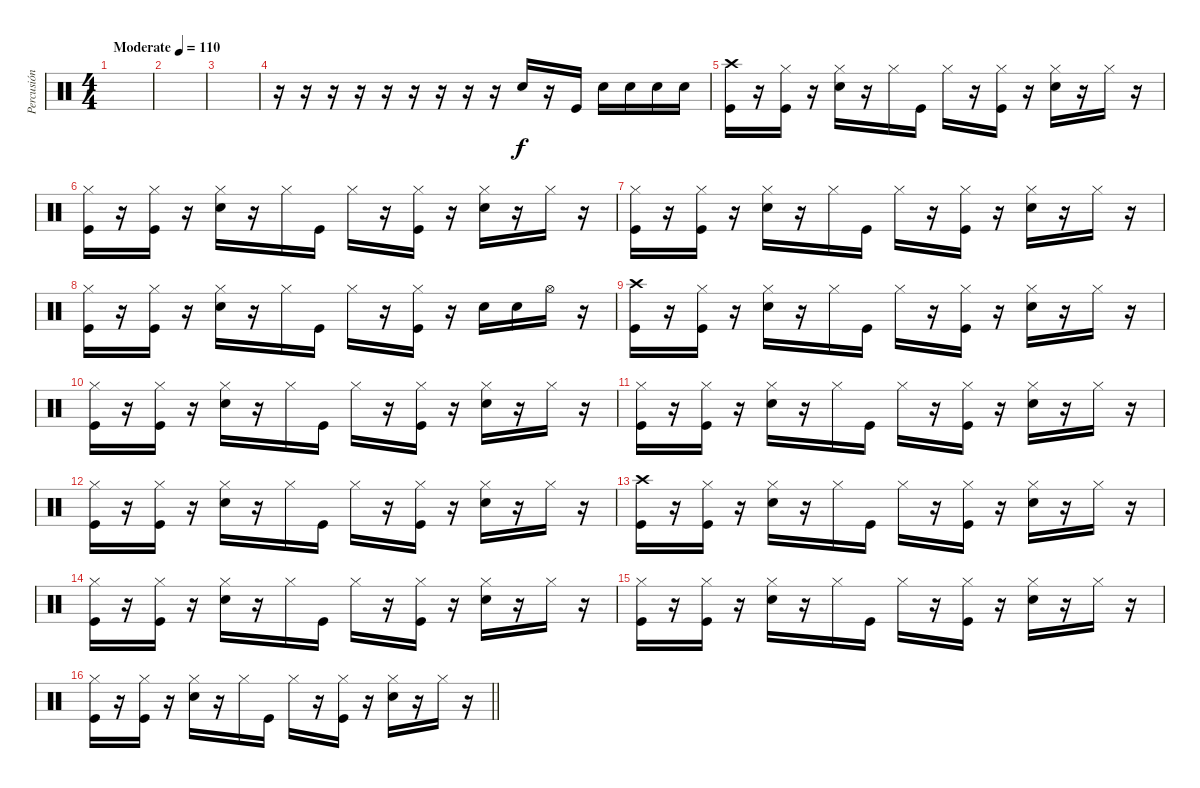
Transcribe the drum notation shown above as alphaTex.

\track ("Percusión" "Percusión") {instrument percussion}
\staff {score}
\articulation defaults
\ts (4 4)
\tempo (110 "Moderate")
\clef neutral
\ks c
|
|
|
r.16 r.16 r.16 r.16 r.16 r.16 r.16 r.16 r.16 "Electric Snare (hit)".16 r.16 "Kick (hit)".16 "Electric Snare (hit)".16 "Electric Snare (hit)".16 "Electric Snare (hit)".16 "Electric Snare (hit)".16 |
("Crash high (hit)" "Kick (hit)").16 r.16 ("Hi-Hat (closed)" "Kick (hit)").16 r.16 ("Hi-Hat (closed)" "Electric Snare (hit)").16 r.16 "Hi-Hat (closed)".16 "Kick (hit)".16 "Hi-Hat (closed)".16 r.16 ("Hi-Hat (closed)" "Kick (hit)").16 r.16 ("Hi-Hat (closed)" "Electric Snare (hit)").16 r.16 "Hi-Hat (closed)".16 r.16 |
("Hi-Hat (closed)" "Kick (hit)").16 r.16 ("Hi-Hat (closed)" "Kick (hit)").16 r.16 ("Hi-Hat (closed)" "Electric Snare (hit)").16 r.16 "Hi-Hat (closed)".16 "Kick (hit)".16 "Hi-Hat (closed)".16 r.16 ("Hi-Hat (closed)" "Kick (hit)").16 r.16 ("Hi-Hat (closed)" "Electric Snare (hit)").16 r.16 "Hi-Hat (closed)".16 r.16 |
("Hi-Hat (closed)" "Kick (hit)").16 r.16 ("Hi-Hat (closed)" "Kick (hit)").16 r.16 ("Hi-Hat (closed)" "Electric Snare (hit)").16 r.16 "Hi-Hat (closed)".16 "Kick (hit)".16 "Hi-Hat (closed)".16 r.16 ("Hi-Hat (closed)" "Kick (hit)").16 r.16 ("Hi-Hat (closed)" "Electric Snare (hit)").16 r.16 "Hi-Hat (closed)".16 r.16 |
("Hi-Hat (closed)" "Kick (hit)").16 r.16 ("Hi-Hat (closed)" "Kick (hit)").16 r.16 ("Hi-Hat (closed)" "Electric Snare (hit)").16 r.16 "Hi-Hat (closed)".16 "Kick (hit)".16 "Hi-Hat (closed)".16 r.16 ("Hi-Hat (closed)" "Kick (hit)").16 r.16 "Electric Snare (hit)".16 "Electric Snare (hit)".16 "Hi-Hat (open)".16 r.16 |
("Crash high (hit)" "Kick (hit)").16 r.16 ("Hi-Hat (closed)" "Kick (hit)").16 r.16 ("Hi-Hat (closed)" "Electric Snare (hit)").16 r.16 "Hi-Hat (closed)".16 "Kick (hit)".16 "Hi-Hat (closed)".16 r.16 ("Hi-Hat (closed)" "Kick (hit)").16 r.16 ("Hi-Hat (closed)" "Electric Snare (hit)").16 r.16 "Hi-Hat (closed)".16 r.16 |
("Hi-Hat (closed)" "Kick (hit)").16 r.16 ("Hi-Hat (closed)" "Kick (hit)").16 r.16 ("Hi-Hat (closed)" "Electric Snare (hit)").16 r.16 "Hi-Hat (closed)".16 "Kick (hit)".16 "Hi-Hat (closed)".16 r.16 ("Hi-Hat (closed)" "Kick (hit)").16 r.16 ("Hi-Hat (closed)" "Electric Snare (hit)").16 r.16 "Hi-Hat (closed)".16 r.16 |
("Hi-Hat (closed)" "Kick (hit)").16 r.16 ("Hi-Hat (closed)" "Kick (hit)").16 r.16 ("Hi-Hat (closed)" "Electric Snare (hit)").16 r.16 "Hi-Hat (closed)".16 "Kick (hit)".16 "Hi-Hat (closed)".16 r.16 ("Hi-Hat (closed)" "Kick (hit)").16 r.16 ("Hi-Hat (closed)" "Electric Snare (hit)").16 r.16 "Hi-Hat (closed)".16 r.16 |
("Hi-Hat (closed)" "Kick (hit)").16 r.16 ("Hi-Hat (closed)" "Kick (hit)").16 r.16 ("Hi-Hat (closed)" "Electric Snare (hit)").16 r.16 "Hi-Hat (closed)".16 "Kick (hit)".16 "Hi-Hat (closed)".16 r.16 ("Hi-Hat (closed)" "Kick (hit)").16 r.16 ("Hi-Hat (closed)" "Electric Snare (hit)").16 r.16 "Hi-Hat (closed)".16 r.16 |
("Crash high (hit)" "Kick (hit)").16 r.16 ("Hi-Hat (closed)" "Kick (hit)").16 r.16 ("Hi-Hat (closed)" "Electric Snare (hit)").16 r.16 "Hi-Hat (closed)".16 "Kick (hit)".16 "Hi-Hat (closed)".16 r.16 ("Hi-Hat (closed)" "Kick (hit)").16 r.16 ("Hi-Hat (closed)" "Electric Snare (hit)").16 r.16 "Hi-Hat (closed)".16 r.16 |
("Hi-Hat (closed)" "Kick (hit)").16 r.16 ("Hi-Hat (closed)" "Kick (hit)").16 r.16 ("Hi-Hat (closed)" "Electric Snare (hit)").16 r.16 "Hi-Hat (closed)".16 "Kick (hit)".16 "Hi-Hat (closed)".16 r.16 ("Hi-Hat (closed)" "Kick (hit)").16 r.16 ("Hi-Hat (closed)" "Electric Snare (hit)").16 r.16 "Hi-Hat (closed)".16 r.16 |
("Hi-Hat (closed)" "Kick (hit)").16 r.16 ("Hi-Hat (closed)" "Kick (hit)").16 r.16 ("Hi-Hat (closed)" "Electric Snare (hit)").16 r.16 "Hi-Hat (closed)".16 "Kick (hit)".16 "Hi-Hat (closed)".16 r.16 ("Hi-Hat (closed)" "Kick (hit)").16 r.16 ("Hi-Hat (closed)" "Electric Snare (hit)").16 r.16 "Hi-Hat (closed)".16 r.16 |
\barLineRight lightlight
("Hi-Hat (closed)" "Kick (hit)").16 r.16 ("Hi-Hat (closed)" "Kick (hit)").16 r.16 ("Hi-Hat (closed)" "Electric Snare (hit)").16 r.16 "Hi-Hat (closed)".16 "Kick (hit)".16 "Hi-Hat (closed)".16 r.16 ("Hi-Hat (closed)" "Kick (hit)").16 r.16 ("Hi-Hat (closed)" "Electric Snare (hit)").16 r.16 "Hi-Hat (closed)".16 r.16
